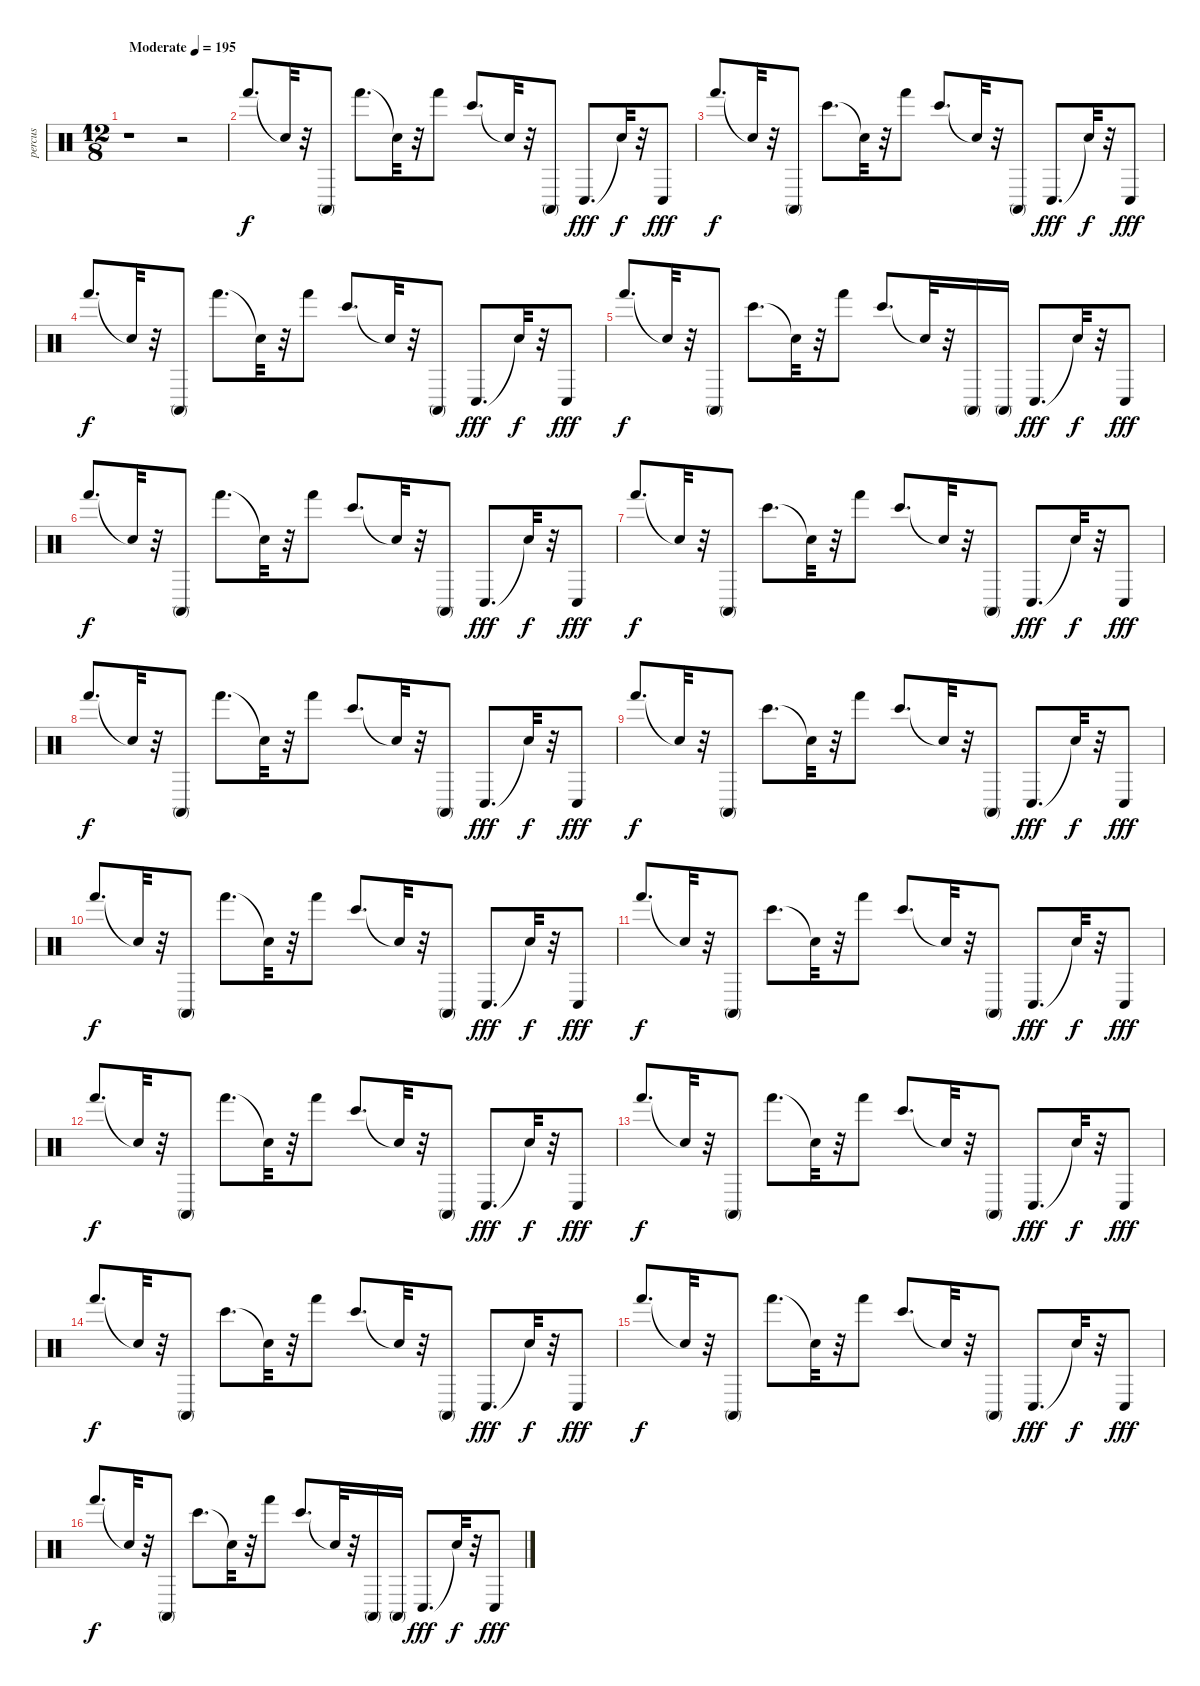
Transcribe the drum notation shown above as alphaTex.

\track ("percus" "percus") {instrument percussion}
\staff {score}
\articulation defaults
\ts (12 8)
\tempo (195 "Moderate")
\clef neutral
\ks c
r.1{dy f} r.2 |
"Hand (hit)".8{d} "Snare (hit)"{t}.32 r.32 "Conga high (mute)".8 "Hand (hit)".8{d} "Snare (hit)"{t}.32 r.32 "Hand (hit)".8 "Bongo High (hit)".8{d} "Snare (hit)"{t}.32 r.32 "Conga high (mute)".8 "Conga low (hit)".8{d dy fff} "Snare (hit)"{t}.32{dy f} r.32 "Conga low (hit)".8{dy fff} |
"Hand (hit)".8{d dy f} "Snare (hit)"{t}.32 r.32 "Conga high (mute)".8 "Bongo High (hit)".8{d} "Snare (hit)"{t}.32 r.32 "Hand (hit)".8 "Bongo High (hit)".8{d} "Snare (hit)"{t}.32 r.32 "Conga high (mute)".8 "Conga low (hit)".8{d dy fff} "Snare (hit)"{t}.32{dy f} r.32 "Conga low (hit)".8{dy fff} |
"Hand (hit)".8{d dy f} "Snare (hit)"{t}.32 r.32 "Conga high (mute)".8 "Hand (hit)".8{d} "Snare (hit)"{t}.32 r.32 "Hand (hit)".8 "Bongo High (hit)".8{d} "Snare (hit)"{t}.32 r.32 "Conga high (mute)".8 "Conga low (hit)".8{d dy fff} "Snare (hit)"{t}.32{dy f} r.32 "Conga low (hit)".8{dy fff} |
"Hand (hit)".8{d dy f} "Snare (hit)"{t}.32 r.32 "Conga high (mute)".8 "Bongo High (hit)".8{d} "Snare (hit)"{t}.32 r.32 "Hand (hit)".8 "Bongo High (hit)".8{d} "Snare (hit)"{t}.32 r.32 "Conga high (mute)".16 "Conga high (mute)".16 "Conga low (hit)".8{d dy fff} "Snare (hit)"{t}.32{dy f} r.32 "Conga low (hit)".8{dy fff} |
"Hand (hit)".8{d dy f} "Snare (hit)"{t}.32 r.32 "Conga high (mute)".8 "Hand (hit)".8{d} "Snare (hit)"{t}.32 r.32 "Hand (hit)".8 "Bongo High (hit)".8{d} "Snare (hit)"{t}.32 r.32 "Conga high (mute)".8 "Conga low (hit)".8{d dy fff} "Snare (hit)"{t}.32{dy f} r.32 "Conga low (hit)".8{dy fff} |
"Hand (hit)".8{d dy f} "Snare (hit)"{t}.32 r.32 "Conga high (mute)".8 "Bongo High (hit)".8{d} "Snare (hit)"{t}.32 r.32 "Hand (hit)".8 "Bongo High (hit)".8{d} "Snare (hit)"{t}.32 r.32 "Conga high (mute)".8 "Conga low (hit)".8{d dy fff} "Snare (hit)"{t}.32{dy f} r.32 "Conga low (hit)".8{dy fff} |
"Hand (hit)".8{d dy f} "Snare (hit)"{t}.32 r.32 "Conga high (mute)".8 "Hand (hit)".8{d} "Snare (hit)"{t}.32 r.32 "Hand (hit)".8 "Bongo High (hit)".8{d} "Snare (hit)"{t}.32 r.32 "Conga high (mute)".8 "Conga low (hit)".8{d dy fff} "Snare (hit)"{t}.32{dy f} r.32 "Conga low (hit)".8{dy fff} |
"Hand (hit)".8{d dy f} "Snare (hit)"{t}.32 r.32 "Conga high (mute)".8 "Bongo High (hit)".8{d} "Snare (hit)"{t}.32 r.32 "Hand (hit)".8 "Bongo High (hit)".8{d} "Snare (hit)"{t}.32 r.32 "Conga high (mute)".8 "Conga low (hit)".8{d dy fff} "Snare (hit)"{t}.32{dy f} r.32 "Conga low (hit)".8{dy fff} |
"Hand (hit)".8{d dy f} "Snare (hit)"{t}.32 r.32 "Conga high (mute)".8 "Hand (hit)".8{d} "Snare (hit)"{t}.32 r.32 "Hand (hit)".8 "Bongo High (hit)".8{d} "Snare (hit)"{t}.32 r.32 "Conga high (mute)".8 "Conga low (hit)".8{d dy fff} "Snare (hit)"{t}.32{dy f} r.32 "Conga low (hit)".8{dy fff} |
"Hand (hit)".8{d dy f} "Snare (hit)"{t}.32 r.32 "Conga high (mute)".8 "Bongo High (hit)".8{d} "Snare (hit)"{t}.32 r.32 "Hand (hit)".8 "Bongo High (hit)".8{d} "Snare (hit)"{t}.32 r.32 "Conga high (mute)".8 "Conga low (hit)".8{d dy fff} "Snare (hit)"{t}.32{dy f} r.32 "Conga low (hit)".8{dy fff} |
"Hand (hit)".8{d dy f} "Snare (hit)"{t}.32 r.32 "Conga high (mute)".8 "Hand (hit)".8{d} "Snare (hit)"{t}.32 r.32 "Hand (hit)".8 "Bongo High (hit)".8{d} "Snare (hit)"{t}.32 r.32 "Conga high (mute)".8 "Conga low (hit)".8{d dy fff} "Snare (hit)"{t}.32{dy f} r.32 "Conga low (hit)".8{dy fff} |
"Hand (hit)".8{d dy f} "Snare (hit)"{t}.32 r.32 "Conga high (mute)".8 "Hand (hit)".8{d} "Snare (hit)"{t}.32 r.32 "Hand (hit)".8 "Bongo High (hit)".8{d} "Snare (hit)"{t}.32 r.32 "Conga high (mute)".8 "Conga low (hit)".8{d dy fff} "Snare (hit)"{t}.32{dy f} r.32 "Conga low (hit)".8{dy fff} |
"Hand (hit)".8{d dy f} "Snare (hit)"{t}.32 r.32 "Conga high (mute)".8 "Bongo High (hit)".8{d} "Snare (hit)"{t}.32 r.32 "Hand (hit)".8 "Bongo High (hit)".8{d} "Snare (hit)"{t}.32 r.32 "Conga high (mute)".8 "Conga low (hit)".8{d dy fff} "Snare (hit)"{t}.32{dy f} r.32 "Conga low (hit)".8{dy fff} |
"Hand (hit)".8{d dy f} "Snare (hit)"{t}.32 r.32 "Conga high (mute)".8 "Hand (hit)".8{d} "Snare (hit)"{t}.32 r.32 "Hand (hit)".8 "Bongo High (hit)".8{d} "Snare (hit)"{t}.32 r.32 "Conga high (mute)".8 "Conga low (hit)".8{d dy fff} "Snare (hit)"{t}.32{dy f} r.32 "Conga low (hit)".8{dy fff} |
"Hand (hit)".8{d dy f} "Snare (hit)"{t}.32 r.32 "Conga high (mute)".8 "Bongo High (hit)".8{d} "Snare (hit)"{t}.32 r.32 "Hand (hit)".8 "Bongo High (hit)".8{d} "Snare (hit)"{t}.32 r.32 "Conga high (mute)".16 "Conga high (mute)".16 "Conga low (hit)".8{d dy fff} "Snare (hit)"{t}.32{dy f} r.32 "Conga low (hit)".8{dy fff}
